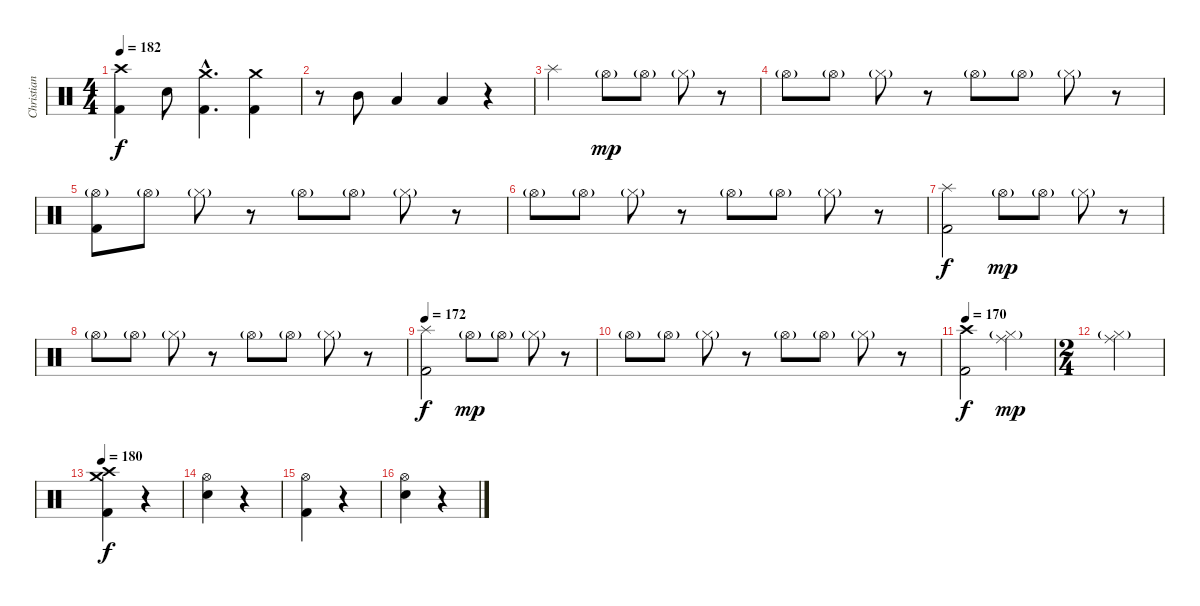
\track ("Christian Meyer" "Christian ") {instrument percussion}
\staff {score}
\articulation defaults
\ts (4 4)
\tempo 182
\clef neutral
\ks c
("Crash high (hit)" "Kick (hit) 2").4{dy f} "Electric Snare (hit)".8 ("Crash medium (hit)"{hac} "Kick (hit) 2"{hac}).4{d} ("Crash medium (hit)" "Kick (hit) 2").4 |
r.8 "Mid Tom (hit)".8 "Low Tom (hit)".4 "Low Tom (hit)".4 r.4 |
"Splash (hit)".2{volume 12} "Hi-Hat (open)"{g}.8{dy mp} "Hi-Hat (open)"{g}.8 "Hi-Hat (closed)"{g}.8 r.8 |
"Hi-Hat (open)"{g}.8 "Hi-Hat (open)"{g}.8 "Hi-Hat (closed)"{g}.8 r.8 "Hi-Hat (open)"{g}.8 "Hi-Hat (open)"{g}.8 "Hi-Hat (closed)"{g}.8 r.8 |
("Hi-Hat (open)"{g} "Kick (hit) 2").8 "Hi-Hat (open)"{g}.8 "Hi-Hat (closed)"{g}.8 r.8 "Hi-Hat (open)"{g}.8 "Hi-Hat (open)"{g}.8 "Hi-Hat (closed)"{g}.8 r.8 |
"Hi-Hat (open)"{g}.8 "Hi-Hat (open)"{g}.8 "Hi-Hat (closed)"{g}.8 r.8 "Hi-Hat (open)"{g}.8 "Hi-Hat (open)"{g}.8 "Hi-Hat (closed)"{g}.8 r.8 |
("Splash (hit)" "Kick (hit) 2").2{dy f} "Hi-Hat (open)"{g}.8{dy mp} "Hi-Hat (open)"{g}.8 "Hi-Hat (closed)"{g}.8 r.8 |
"Hi-Hat (open)"{g}.8 "Hi-Hat (open)"{g}.8 "Hi-Hat (closed)"{g}.8 r.8 "Hi-Hat (open)"{g}.8 "Hi-Hat (open)"{g}.8 "Hi-Hat (closed)"{g}.8 r.8 |
\tempo 172
("Splash (hit)" "Kick (hit) 2").2{dy f} "Hi-Hat (open)"{g}.8{dy mp} "Hi-Hat (open)"{g}.8 "Hi-Hat (closed)"{g}.8 r.8 |
"Hi-Hat (open)"{g}.8 "Hi-Hat (open)"{g}.8 "Hi-Hat (closed)"{g}.8 r.8 "Hi-Hat (open)"{g}.8 "Hi-Hat (open)"{g}.8 "Hi-Hat (closed)"{g}.8 r.8 |
\tempo 170
("Crash high (hit)" "Kick (hit) 2").2{dy f} ("Hi-Hat (closed)"{g} "Ride (middle)").2{dy mp} |
\ts (2 4)
("Hi-Hat (closed)"{g} "Ride (middle)").2 |
\tempo 180
("Crash high (hit)" "Crash medium (hit)" "Kick (hit) 2").4{dy f} r.4 |
("Hi-Hat (open)" "Electric Snare (hit)").4 r.4 |
("Hi-Hat (open)" "Kick (hit) 2").4 r.4 |
("Hi-Hat (open)" "Electric Snare (hit)").4 r.4
